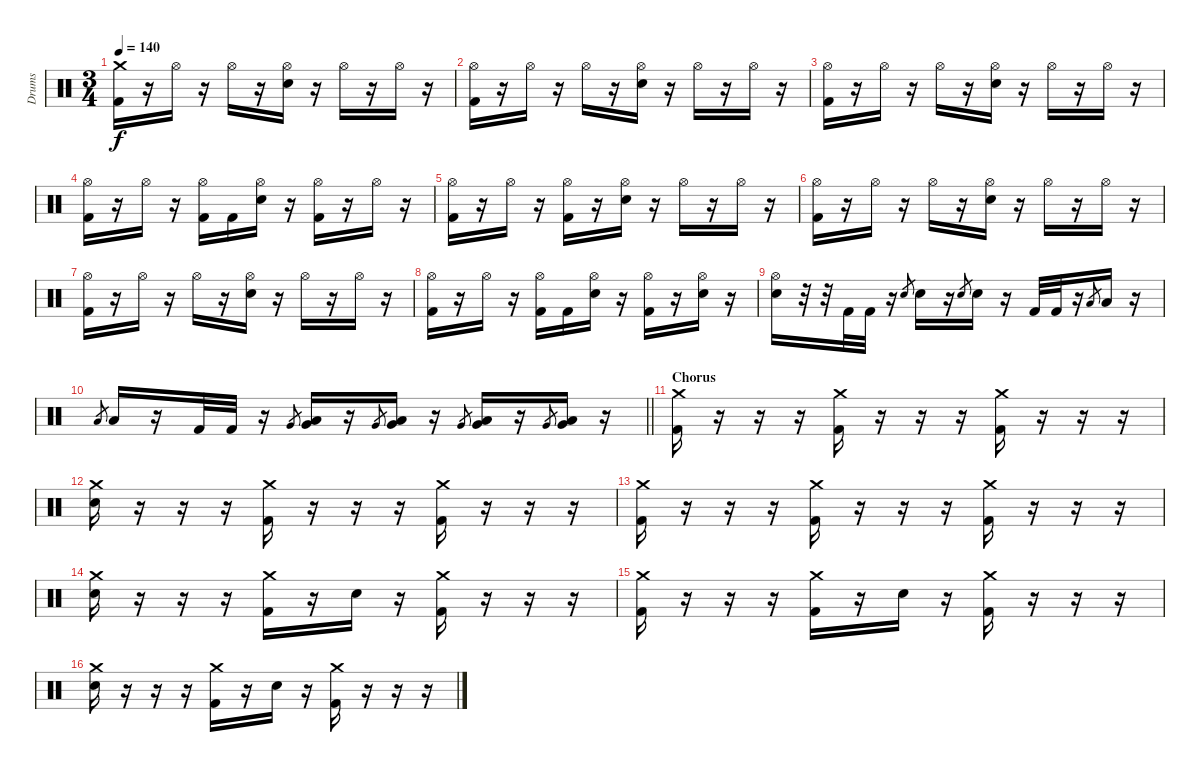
\track ("Drums" "Drums") {instrument percussion}
\staff {score}
\articulation defaults
\ts (3 4)
\tempo 140
\clef neutral
\ks c
("Crash medium (hit)" "Kick (hit) 2").16{dy f} r.16 "Hi-Hat (open)".16 r.16 "Hi-Hat (open)".16 r.16 ("Hi-Hat (open)" "Electric Snare (hit)").16 r.16 "Hi-Hat (open)".16 r.16 "Hi-Hat (open)".16 r.16 |
("Hi-Hat (open)" "Kick (hit) 2").16 r.16 "Hi-Hat (open)".16 r.16 "Hi-Hat (open)".16 r.16 ("Hi-Hat (open)" "Electric Snare (hit)").16 r.16 "Hi-Hat (open)".16 r.16 "Hi-Hat (open)".16 r.16 |
("Hi-Hat (open)" "Kick (hit) 2").16 r.16 "Hi-Hat (open)".16 r.16 "Hi-Hat (open)".16 r.16 ("Hi-Hat (open)" "Electric Snare (hit)").16 r.16 "Hi-Hat (open)".16 r.16 "Hi-Hat (open)".16 r.16 |
("Hi-Hat (open)" "Kick (hit) 2").16 r.16 "Hi-Hat (open)".16 r.16 ("Hi-Hat (open)" "Kick (hit) 2").16 "Kick (hit) 2".16 ("Hi-Hat (open)" "Electric Snare (hit)").16 r.16 ("Hi-Hat (open)" "Kick (hit) 2").16 r.16 "Hi-Hat (open)".16 r.16 |
("Hi-Hat (open)" "Kick (hit) 2").16 r.16 "Hi-Hat (open)".16 r.16 ("Hi-Hat (open)" "Kick (hit) 2").16 r.16 ("Hi-Hat (open)" "Electric Snare (hit)").16 r.16 "Hi-Hat (open)".16 r.16 "Hi-Hat (open)".16 r.16 |
("Hi-Hat (open)" "Kick (hit) 2").16 r.16 "Hi-Hat (open)".16 r.16 "Hi-Hat (open)".16 r.16 ("Hi-Hat (open)" "Electric Snare (hit)").16 r.16 "Hi-Hat (open)".16 r.16 "Hi-Hat (open)".16 r.16 |
("Hi-Hat (open)" "Kick (hit) 2").16 r.16 "Hi-Hat (open)".16 r.16 "Hi-Hat (open)".16 r.16 ("Hi-Hat (open)" "Electric Snare (hit)").16 r.16 "Hi-Hat (open)".16 r.16 "Hi-Hat (open)".16 r.16 |
("Hi-Hat (open)" "Kick (hit) 2").16 r.16 "Hi-Hat (open)".16 r.16 ("Hi-Hat (open)" "Kick (hit) 2").16 "Kick (hit) 2".16 ("Hi-Hat (open)" "Electric Snare (hit)").16 r.16 ("Hi-Hat (open)" "Kick (hit) 2").16 r.16 ("Hi-Hat (open)" "Electric Snare (hit)").16 r.16 |
("Hi-Hat (open)" "Electric Snare (hit)").16 r.32 r.32 "Kick (hit) 2".32 "Kick (hit) 2".32 r.16 "Electric Snare (hit)".8{gr} "Electric Snare (hit)".16 r.16 "Electric Snare (hit)".8{gr} "Electric Snare (hit)".16 r.16 "Kick (hit) 2".32 "Kick (hit) 2".32 r.16 "Low Tom (hit)".8{gr} "Low Tom (hit)".16 r.16 |
\barLineRight lightlight "Low Tom (hit)".8{gr} "Low Tom (hit)".16
r.16 "Kick (hit) 2".32 "Kick (hit) 2".32 r.16 "Very Low Tom (hit)".8{gr} ("Low Floor Tom (hit)" "Very Low Tom (hit)").16 r.16 "Very Low Tom (hit)".8{gr} ("Low Floor Tom (hit)" "Very Low Tom (hit)").16 r.16 "Very Low Tom (hit)".8{gr} ("Low Floor Tom (hit)" "Very Low Tom (hit)").16 r.16 "Very Low Tom (hit)".8{gr} ("Low Floor Tom (hit)" "Very Low Tom (hit)").16 r.16 |
\section ("" "Chorus")
("Crash medium (hit)" "Kick (hit) 2").16 r.16 r.16 r.16 ("Crash medium (hit)" "Kick (hit) 2").16 r.16 r.16 r.16 ("Crash medium (hit)" "Kick (hit) 2").16 r.16 r.16 r.16 |
("Crash medium (hit)" "Electric Snare (hit)").16 r.16 r.16 r.16 ("Crash medium (hit)" "Kick (hit) 2").16 r.16 r.16 r.16 ("Crash medium (hit)" "Kick (hit) 2").16 r.16 r.16 r.16 |
("Crash medium (hit)" "Kick (hit) 2").16 r.16 r.16 r.16 ("Crash medium (hit)" "Kick (hit) 2").16 r.16 r.16 r.16 ("Crash medium (hit)" "Kick (hit) 2").16 r.16 r.16 r.16 |
("Crash medium (hit)" "Electric Snare (hit)").16 r.16 r.16 r.16 ("Crash medium (hit)" "Kick (hit) 2").16 r.16 "Electric Snare (hit)".16 r.16 ("Crash medium (hit)" "Kick (hit) 2").16 r.16 r.16 r.16 |
("Crash medium (hit)" "Kick (hit) 2").16 r.16 r.16 r.16 ("Crash medium (hit)" "Kick (hit) 2").16 r.16 "Electric Snare (hit)".16 r.16 ("Crash medium (hit)" "Kick (hit) 2").16 r.16 r.16 r.16 |
("Crash medium (hit)" "Electric Snare (hit)").16 r.16 r.16 r.16 ("Crash medium (hit)" "Kick (hit) 2").16 r.16 "Electric Snare (hit)".16 r.16 ("Crash medium (hit)" "Kick (hit) 2").16 r.16 r.16 r.16
